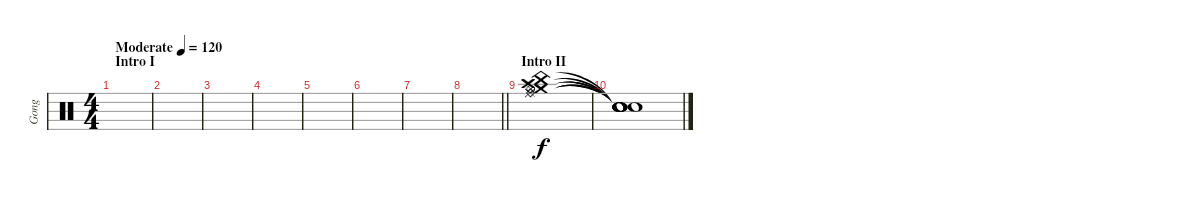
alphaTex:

\track ("Gong" "Gong") {instrument percussion}
\staff {score}
\articulation defaults
\ts (4 4)
\section ("" "Intro I")
\tempo (120 "Moderate")
\clef neutral
\ks c
|
|
|
|
|
|
|
\barLineRight lightlight
|
\section ("" "Intro II")
("Crash medium (hit)" "Ride (bell)" "China (hit)" "Ride (middle)" "Crash high (hit)" "Hi-Hat (open)").1 |
("Snare (hit)"{t} "Snare (hit)"{t} "Snare (hit)"{t} "Snare (hit)"{t} "Snare (hit)"{t} "Snare (hit)"{t}).1
